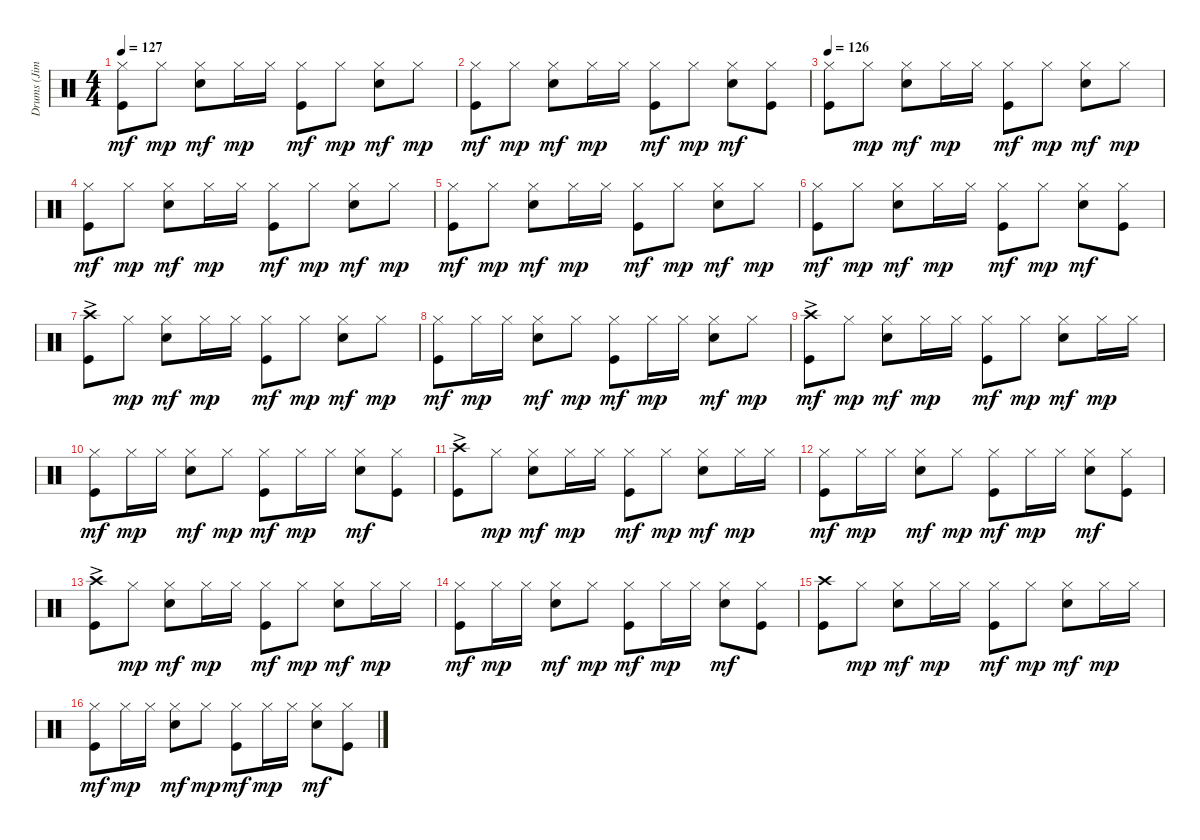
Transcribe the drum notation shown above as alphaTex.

\track ("Drums (Jim Keltner)" "Drums (Jim") {instrument percussion}
\staff {score}
\articulation defaults
\ts (4 4)
\tempo 127
\clef neutral
\ks c
("Hi-Hat (closed)" "Kick (hit)").8{dy mf} "Hi-Hat (closed)".8{dy mp} ("Hi-Hat (closed)" "Snare (hit) 2").8{dy mf} "Hi-Hat (closed)".16{dy mp} "Hi-Hat (closed)".16 ("Hi-Hat (closed)" "Kick (hit)").8{dy mf} "Hi-Hat (closed)".8{dy mp} ("Hi-Hat (closed)" "Snare (hit) 2").8{dy mf} "Hi-Hat (closed)".8{dy mp} |
("Hi-Hat (closed)" "Kick (hit)").8{dy mf} "Hi-Hat (closed)".8{dy mp} ("Hi-Hat (closed)" "Snare (hit) 2").8{dy mf} "Hi-Hat (closed)".16{dy mp} "Hi-Hat (closed)".16 ("Hi-Hat (closed)" "Kick (hit)").8{dy mf} "Hi-Hat (closed)".8{dy mp} ("Hi-Hat (closed)" "Snare (hit) 2").8{dy mf} ("Hi-Hat (closed)" "Kick (hit)").8 |
\tempo 126
("Hi-Hat (closed)" "Kick (hit)").8 "Hi-Hat (closed)".8{dy mp} ("Hi-Hat (closed)" "Snare (hit) 2").8{dy mf} "Hi-Hat (closed)".16{dy mp} "Hi-Hat (closed)".16 ("Hi-Hat (closed)" "Kick (hit)").8{dy mf} "Hi-Hat (closed)".8{dy mp} ("Hi-Hat (closed)" "Snare (hit) 2").8{dy mf} "Hi-Hat (closed)".8{dy mp} |
("Hi-Hat (closed)" "Kick (hit)").8{dy mf} "Hi-Hat (closed)".8{dy mp} ("Hi-Hat (closed)" "Snare (hit) 2").8{dy mf} "Hi-Hat (closed)".16{dy mp} "Hi-Hat (closed)".16 ("Hi-Hat (closed)" "Kick (hit)").8{dy mf} "Hi-Hat (closed)".8{dy mp} ("Hi-Hat (closed)" "Snare (hit) 2").8{dy mf} "Hi-Hat (closed)".8{dy mp} |
("Hi-Hat (closed)" "Kick (hit)").8{dy mf} "Hi-Hat (closed)".8{dy mp} ("Hi-Hat (closed)" "Snare (hit) 2").8{dy mf} "Hi-Hat (closed)".16{dy mp} "Hi-Hat (closed)".16 ("Hi-Hat (closed)" "Kick (hit)").8{dy mf} "Hi-Hat (closed)".8{dy mp} ("Hi-Hat (closed)" "Snare (hit) 2").8{dy mf} "Hi-Hat (closed)".8{dy mp} |
("Hi-Hat (closed)" "Kick (hit)").8{dy mf} "Hi-Hat (closed)".8{dy mp} ("Hi-Hat (closed)" "Snare (hit) 2").8{dy mf} "Hi-Hat (closed)".16{dy mp} "Hi-Hat (closed)".16 ("Hi-Hat (closed)" "Kick (hit)").8{dy mf} "Hi-Hat (closed)".8{dy mp} ("Hi-Hat (closed)" "Snare (hit) 2").8{dy mf} ("Hi-Hat (closed)" "Kick (hit)").8 |
("Crash high (hit)"{ac} "Kick (hit)").8 "Hi-Hat (closed)".8{dy mp} ("Hi-Hat (closed)" "Snare (hit) 2").8{dy mf} "Hi-Hat (closed)".16{dy mp} "Hi-Hat (closed)".16 ("Hi-Hat (closed)" "Kick (hit)").8{dy mf} "Hi-Hat (closed)".8{dy mp} ("Hi-Hat (closed)" "Snare (hit) 2").8{dy mf} "Hi-Hat (closed)".8{dy mp} |
("Hi-Hat (closed)" "Kick (hit)").8{dy mf} "Hi-Hat (closed)".16{dy mp} "Hi-Hat (closed)".16 ("Hi-Hat (closed)" "Snare (hit) 2").8{dy mf} "Hi-Hat (closed)".8{dy mp} ("Hi-Hat (closed)" "Kick (hit)").8{dy mf} "Hi-Hat (closed)".16{dy mp} "Hi-Hat (closed)".16 ("Hi-Hat (closed)" "Snare (hit) 2").8{dy mf} "Hi-Hat (closed)".8{dy mp} |
("Crash high (hit)"{ac} "Kick (hit)").8{dy mf} "Hi-Hat (closed)".8{dy mp} ("Hi-Hat (closed)" "Snare (hit) 2").8{dy mf} "Hi-Hat (closed)".16{dy mp} "Hi-Hat (closed)".16 ("Hi-Hat (closed)" "Kick (hit)").8{dy mf} "Hi-Hat (closed)".8{dy mp} ("Hi-Hat (closed)" "Snare (hit) 2").8{dy mf} "Hi-Hat (closed)".16{dy mp} "Hi-Hat (closed)".16 |
("Hi-Hat (closed)" "Kick (hit)").8{dy mf} "Hi-Hat (closed)".16{dy mp} "Hi-Hat (closed)".16 ("Hi-Hat (closed)" "Snare (hit) 2").8{dy mf} "Hi-Hat (closed)".8{dy mp} ("Hi-Hat (closed)" "Kick (hit)").8{dy mf} "Hi-Hat (closed)".16{dy mp} "Hi-Hat (closed)".16 ("Hi-Hat (closed)" "Snare (hit) 2").8{dy mf} ("Hi-Hat (closed)" "Kick (hit)").8 |
("Crash high (hit)"{ac} "Kick (hit)").8 "Hi-Hat (closed)".8{dy mp} ("Hi-Hat (closed)" "Snare (hit) 2").8{dy mf} "Hi-Hat (closed)".16{dy mp} "Hi-Hat (closed)".16 ("Hi-Hat (closed)" "Kick (hit)").8{dy mf} "Hi-Hat (closed)".8{dy mp} ("Hi-Hat (closed)" "Snare (hit) 2").8{dy mf} "Hi-Hat (closed)".16{dy mp} "Hi-Hat (closed)".16 |
("Hi-Hat (closed)" "Kick (hit)").8{dy mf} "Hi-Hat (closed)".16{dy mp} "Hi-Hat (closed)".16 ("Hi-Hat (closed)" "Snare (hit) 2").8{dy mf} "Hi-Hat (closed)".8{dy mp} ("Hi-Hat (closed)" "Kick (hit)").8{dy mf} "Hi-Hat (closed)".16{dy mp} "Hi-Hat (closed)".16 ("Hi-Hat (closed)" "Snare (hit) 2").8{dy mf} ("Hi-Hat (closed)" "Kick (hit)").8 |
("Crash high (hit)"{ac} "Kick (hit)").8 "Hi-Hat (closed)".8{dy mp} ("Hi-Hat (closed)" "Snare (hit) 2").8{dy mf} "Hi-Hat (closed)".16{dy mp} "Hi-Hat (closed)".16 ("Hi-Hat (closed)" "Kick (hit)").8{dy mf} "Hi-Hat (closed)".8{dy mp} ("Hi-Hat (closed)" "Snare (hit) 2").8{dy mf} "Hi-Hat (closed)".16{dy mp} "Hi-Hat (closed)".16 |
("Hi-Hat (closed)" "Kick (hit)").8{dy mf} "Hi-Hat (closed)".16{dy mp} "Hi-Hat (closed)".16 ("Hi-Hat (closed)" "Snare (hit) 2").8{dy mf} "Hi-Hat (closed)".8{dy mp} ("Hi-Hat (closed)" "Kick (hit)").8{dy mf} "Hi-Hat (closed)".16{dy mp} "Hi-Hat (closed)".16 ("Hi-Hat (closed)" "Snare (hit) 2").8{dy mf} ("Hi-Hat (closed)" "Kick (hit)").8 |
("Crash high (hit)" "Kick (hit)").8 "Hi-Hat (closed)".8{dy mp} ("Hi-Hat (closed)" "Snare (hit) 2").8{dy mf} "Hi-Hat (closed)".16{dy mp} "Hi-Hat (closed)".16 ("Hi-Hat (closed)" "Kick (hit)").8{dy mf} "Hi-Hat (closed)".8{dy mp} ("Hi-Hat (closed)" "Snare (hit) 2").8{dy mf} "Hi-Hat (closed)".16{dy mp} "Hi-Hat (closed)".16 |
("Hi-Hat (closed)" "Kick (hit)").8{dy mf} "Hi-Hat (closed)".16{dy mp} "Hi-Hat (closed)".16 ("Hi-Hat (closed)" "Snare (hit) 2").8{dy mf} "Hi-Hat (closed)".8{dy mp} ("Hi-Hat (closed)" "Kick (hit)").8{dy mf} "Hi-Hat (closed)".16{dy mp} "Hi-Hat (closed)".16 ("Hi-Hat (closed)" "Snare (hit) 2").8{dy mf} ("Hi-Hat (closed)" "Kick (hit)").8
